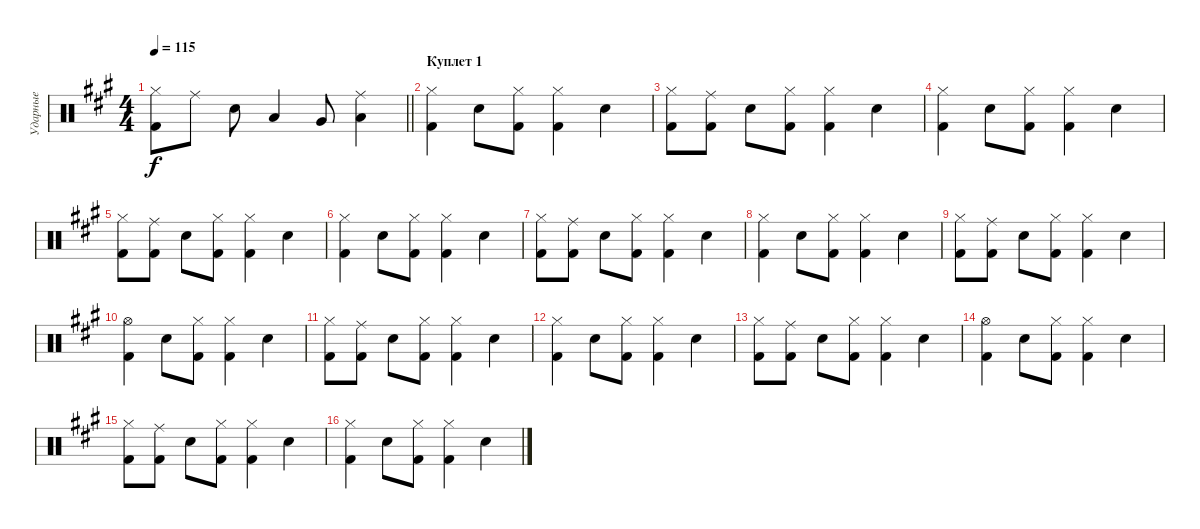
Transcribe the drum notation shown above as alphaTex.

\track ("Ударные" "Ударные") {instrument percussion}
\staff {score}
\articulation defaults
\ts (4 4)
\tempo 115
\clef neutral
\barLineRight lightlight
\ks f#minor
("Hi-Hat (closed)" "Kick (hit) 2").8{dy f} "Ride (middle)".8 "Snare (hit) 2".8 "Low Tom (hit)".4 "Very Low Tom (hit)".8 ("Ride (middle)" "Low Floor Tom (hit)").4 |
\section ("" "Куплет 1")
("Hi-Hat (closed)" "Kick (hit) 2").4 "Snare (hit) 2".8 ("Hi-Hat (closed)" "Kick (hit) 2").8 ("Hi-Hat (closed)" "Kick (hit) 2").4 "Snare (hit) 2".4 |
("Hi-Hat (closed)" "Kick (hit) 2").8 ("Ride (middle)" "Kick (hit) 2").8 "Snare (hit) 2".8 ("Hi-Hat (closed)" "Kick (hit) 2").8 ("Hi-Hat (closed)" "Kick (hit) 2").4 "Snare (hit) 2".4 |
("Hi-Hat (closed)" "Kick (hit) 2").4 "Snare (hit) 2".8 ("Hi-Hat (closed)" "Kick (hit) 2").8 ("Hi-Hat (closed)" "Kick (hit) 2").4 "Snare (hit) 2".4 |
("Hi-Hat (closed)" "Kick (hit) 2").8 ("Ride (middle)" "Kick (hit) 2").8 "Snare (hit) 2".8 ("Hi-Hat (closed)" "Kick (hit) 2").8 ("Hi-Hat (closed)" "Kick (hit) 2").4 "Snare (hit) 2".4 |
("Hi-Hat (closed)" "Kick (hit) 2").4 "Snare (hit) 2".8 ("Hi-Hat (closed)" "Kick (hit) 2").8 ("Hi-Hat (closed)" "Kick (hit) 2").4 "Snare (hit) 2".4 |
("Hi-Hat (closed)" "Kick (hit) 2").8 ("Ride (middle)" "Kick (hit) 2").8 "Snare (hit) 2".8 ("Hi-Hat (closed)" "Kick (hit) 2").8 ("Hi-Hat (closed)" "Kick (hit) 2").4 "Snare (hit) 2".4 |
("Hi-Hat (closed)" "Kick (hit) 2").4 "Snare (hit) 2".8 ("Hi-Hat (closed)" "Kick (hit) 2").8 ("Hi-Hat (closed)" "Kick (hit) 2").4 "Snare (hit) 2".4 |
("Hi-Hat (closed)" "Kick (hit) 2").8 ("Ride (middle)" "Kick (hit) 2").8 "Snare (hit) 2".8 ("Hi-Hat (closed)" "Kick (hit) 2").8 ("Hi-Hat (closed)" "Kick (hit) 2").4 "Snare (hit) 2".4 |
("Hi-Hat (open)" "Kick (hit) 2").4 "Snare (hit) 2".8 ("Hi-Hat (closed)" "Kick (hit) 2").8 ("Hi-Hat (closed)" "Kick (hit) 2").4 "Snare (hit) 2".4 |
("Hi-Hat (closed)" "Kick (hit) 2").8 ("Ride (middle)" "Kick (hit) 2").8 "Snare (hit) 2".8 ("Hi-Hat (closed)" "Kick (hit) 2").8 ("Hi-Hat (closed)" "Kick (hit) 2").4 "Snare (hit) 2".4 |
("Hi-Hat (closed)" "Kick (hit) 2").4 "Snare (hit) 2".8 ("Hi-Hat (closed)" "Kick (hit) 2").8 ("Hi-Hat (closed)" "Kick (hit) 2").4 "Snare (hit) 2".4 |
("Hi-Hat (closed)" "Kick (hit) 2").8 ("Ride (middle)" "Kick (hit) 2").8 "Snare (hit) 2".8 ("Hi-Hat (closed)" "Kick (hit) 2").8{volume 12} ("Hi-Hat (closed)" "Kick (hit) 2").4{volume 11} "Snare (hit) 2".4 |
("Hi-Hat (open)" "Kick (hit) 2").4 "Snare (hit) 2".8 ("Hi-Hat (closed)" "Kick (hit) 2").8{volume 12} ("Hi-Hat (closed)" "Kick (hit) 2").4{volume 11} "Snare (hit) 2".4 |
("Hi-Hat (closed)" "Kick (hit) 2").8 ("Ride (middle)" "Kick (hit) 2").8 "Snare (hit) 2".8 ("Hi-Hat (closed)" "Kick (hit) 2").8{volume 12} ("Hi-Hat (closed)" "Kick (hit) 2").4{volume 11} "Snare (hit) 2".4 |
("Hi-Hat (closed)" "Kick (hit) 2").4 "Snare (hit) 2".8 ("Hi-Hat (closed)" "Kick (hit) 2").8{volume 12} ("Hi-Hat (closed)" "Kick (hit) 2").4{volume 11} "Snare (hit) 2".4
